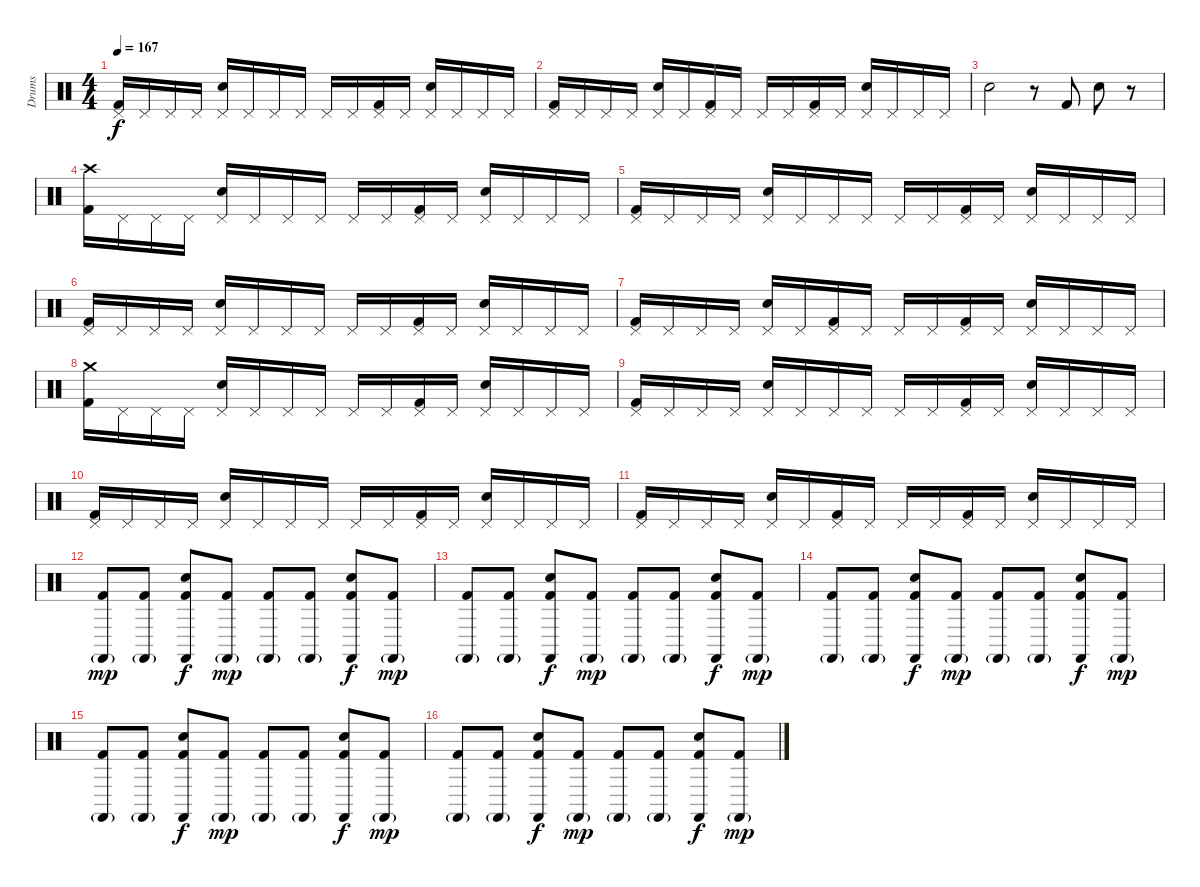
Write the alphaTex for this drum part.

\track ("Drums" "Drums") {instrument percussion}
\staff {score}
\articulation defaults
\ts (4 4)
\tempo 167
\clef neutral
\ks c
("Pedal Hi-Hat (hit)" "Kick (hit) 2").16{dy f} "Pedal Hi-Hat (hit)".16 "Pedal Hi-Hat (hit)".16 "Pedal Hi-Hat (hit)".16 ("Pedal Hi-Hat (hit)" "Snare (hit) 2").16 "Pedal Hi-Hat (hit)".16 "Pedal Hi-Hat (hit)".16 "Pedal Hi-Hat (hit)".16 "Pedal Hi-Hat (hit)".16 "Pedal Hi-Hat (hit)".16 ("Pedal Hi-Hat (hit)" "Kick (hit) 2").16 "Pedal Hi-Hat (hit)".16 ("Pedal Hi-Hat (hit)" "Snare (hit) 2").16 "Pedal Hi-Hat (hit)".16 "Pedal Hi-Hat (hit)".16 "Pedal Hi-Hat (hit)".16 |
("Pedal Hi-Hat (hit)" "Kick (hit) 2").16 "Pedal Hi-Hat (hit)".16 "Pedal Hi-Hat (hit)".16 "Pedal Hi-Hat (hit)".16 ("Pedal Hi-Hat (hit)" "Snare (hit) 2").16 "Pedal Hi-Hat (hit)".16 ("Pedal Hi-Hat (hit)" "Kick (hit) 2").16 "Pedal Hi-Hat (hit)".16 "Pedal Hi-Hat (hit)".16 "Pedal Hi-Hat (hit)".16 ("Pedal Hi-Hat (hit)" "Kick (hit) 2").16 "Pedal Hi-Hat (hit)".16 ("Pedal Hi-Hat (hit)" "Snare (hit) 2").16 "Pedal Hi-Hat (hit)".16 "Pedal Hi-Hat (hit)".16 "Pedal Hi-Hat (hit)".16 |
"Snare (hit) 2".2 r.8 "Kick (hit) 2".8 "Snare (hit) 2".8 r.8 |
("Crash high (hit)" "Kick (hit) 2").16 "Pedal Hi-Hat (hit)".16 "Pedal Hi-Hat (hit)".16 "Pedal Hi-Hat (hit)".16 ("Pedal Hi-Hat (hit)" "Snare (hit) 2").16 "Pedal Hi-Hat (hit)".16 "Pedal Hi-Hat (hit)".16 "Pedal Hi-Hat (hit)".16 "Pedal Hi-Hat (hit)".16 "Pedal Hi-Hat (hit)".16 ("Pedal Hi-Hat (hit)" "Kick (hit) 2").16 "Pedal Hi-Hat (hit)".16 ("Pedal Hi-Hat (hit)" "Snare (hit) 2").16 "Pedal Hi-Hat (hit)".16 "Pedal Hi-Hat (hit)".16 "Pedal Hi-Hat (hit)".16 |
("Pedal Hi-Hat (hit)" "Kick (hit) 2").16 "Pedal Hi-Hat (hit)".16 "Pedal Hi-Hat (hit)".16 "Pedal Hi-Hat (hit)".16 ("Pedal Hi-Hat (hit)" "Snare (hit) 2").16 "Pedal Hi-Hat (hit)".16 "Pedal Hi-Hat (hit)".16 "Pedal Hi-Hat (hit)".16 "Pedal Hi-Hat (hit)".16 "Pedal Hi-Hat (hit)".16 ("Pedal Hi-Hat (hit)" "Kick (hit) 2").16 "Pedal Hi-Hat (hit)".16 ("Pedal Hi-Hat (hit)" "Snare (hit) 2").16 "Pedal Hi-Hat (hit)".16 "Pedal Hi-Hat (hit)".16 "Pedal Hi-Hat (hit)".16 |
("Pedal Hi-Hat (hit)" "Kick (hit) 2").16 "Pedal Hi-Hat (hit)".16 "Pedal Hi-Hat (hit)".16 "Pedal Hi-Hat (hit)".16 ("Pedal Hi-Hat (hit)" "Snare (hit) 2").16 "Pedal Hi-Hat (hit)".16 "Pedal Hi-Hat (hit)".16 "Pedal Hi-Hat (hit)".16 "Pedal Hi-Hat (hit)".16 "Pedal Hi-Hat (hit)".16 ("Pedal Hi-Hat (hit)" "Kick (hit) 2").16 "Pedal Hi-Hat (hit)".16 ("Pedal Hi-Hat (hit)" "Snare (hit) 2").16 "Pedal Hi-Hat (hit)".16 "Pedal Hi-Hat (hit)".16 "Pedal Hi-Hat (hit)".16 |
("Pedal Hi-Hat (hit)" "Kick (hit) 2").16 "Pedal Hi-Hat (hit)".16 "Pedal Hi-Hat (hit)".16 "Pedal Hi-Hat (hit)".16 ("Pedal Hi-Hat (hit)" "Snare (hit) 2").16 "Pedal Hi-Hat (hit)".16 ("Pedal Hi-Hat (hit)" "Kick (hit) 2").16 "Pedal Hi-Hat (hit)".16 "Pedal Hi-Hat (hit)".16 "Pedal Hi-Hat (hit)".16 ("Pedal Hi-Hat (hit)" "Kick (hit) 2").16 "Pedal Hi-Hat (hit)".16 ("Pedal Hi-Hat (hit)" "Snare (hit) 2").16 "Pedal Hi-Hat (hit)".16 "Pedal Hi-Hat (hit)".16 "Pedal Hi-Hat (hit)".16 |
("Crash medium (hit)" "Kick (hit) 2").16 "Pedal Hi-Hat (hit)".16 "Pedal Hi-Hat (hit)".16 "Pedal Hi-Hat (hit)".16 ("Pedal Hi-Hat (hit)" "Snare (hit) 2").16 "Pedal Hi-Hat (hit)".16 "Pedal Hi-Hat (hit)".16 "Pedal Hi-Hat (hit)".16 "Pedal Hi-Hat (hit)".16 "Pedal Hi-Hat (hit)".16 ("Pedal Hi-Hat (hit)" "Kick (hit) 2").16 "Pedal Hi-Hat (hit)".16 ("Pedal Hi-Hat (hit)" "Snare (hit) 2").16 "Pedal Hi-Hat (hit)".16 "Pedal Hi-Hat (hit)".16 "Pedal Hi-Hat (hit)".16 |
("Pedal Hi-Hat (hit)" "Kick (hit) 2").16 "Pedal Hi-Hat (hit)".16 "Pedal Hi-Hat (hit)".16 "Pedal Hi-Hat (hit)".16 ("Pedal Hi-Hat (hit)" "Snare (hit) 2").16 "Pedal Hi-Hat (hit)".16 "Pedal Hi-Hat (hit)".16 "Pedal Hi-Hat (hit)".16 "Pedal Hi-Hat (hit)".16 "Pedal Hi-Hat (hit)".16 ("Pedal Hi-Hat (hit)" "Kick (hit) 2").16 "Pedal Hi-Hat (hit)".16 ("Pedal Hi-Hat (hit)" "Snare (hit) 2").16 "Pedal Hi-Hat (hit)".16 "Pedal Hi-Hat (hit)".16 "Pedal Hi-Hat (hit)".16 |
("Pedal Hi-Hat (hit)" "Kick (hit) 2").16 "Pedal Hi-Hat (hit)".16 "Pedal Hi-Hat (hit)".16 "Pedal Hi-Hat (hit)".16 ("Pedal Hi-Hat (hit)" "Snare (hit) 2").16 "Pedal Hi-Hat (hit)".16 "Pedal Hi-Hat (hit)".16 "Pedal Hi-Hat (hit)".16 "Pedal Hi-Hat (hit)".16 "Pedal Hi-Hat (hit)".16 ("Pedal Hi-Hat (hit)" "Kick (hit) 2").16 "Pedal Hi-Hat (hit)".16 ("Pedal Hi-Hat (hit)" "Snare (hit) 2").16 "Pedal Hi-Hat (hit)".16 "Pedal Hi-Hat (hit)".16 "Pedal Hi-Hat (hit)".16 |
("Pedal Hi-Hat (hit)" "Kick (hit) 2").16 "Pedal Hi-Hat (hit)".16 "Pedal Hi-Hat (hit)".16 "Pedal Hi-Hat (hit)".16 ("Pedal Hi-Hat (hit)" "Snare (hit) 2").16 "Pedal Hi-Hat (hit)".16 ("Pedal Hi-Hat (hit)" "Kick (hit) 2").16 "Pedal Hi-Hat (hit)".16 "Pedal Hi-Hat (hit)".16 "Pedal Hi-Hat (hit)".16 ("Pedal Hi-Hat (hit)" "Kick (hit) 2").16 "Pedal Hi-Hat (hit)".16 ("Pedal Hi-Hat (hit)" "Snare (hit) 2").16 "Pedal Hi-Hat (hit)".16 "Pedal Hi-Hat (hit)".16 "Pedal Hi-Hat (hit)".16 |
("Castanets (hit)"{g} "Kick (hit) 2").8{dy mp} ("Castanets (hit)"{g} "Kick (hit) 2").8 ("Castanets (hit)" "Snare (hit) 2" "Kick (hit) 2").8{dy f} ("Castanets (hit)"{g} "Kick (hit) 2").8{dy mp} ("Castanets (hit)"{g} "Kick (hit) 2").8 ("Castanets (hit)"{g} "Kick (hit) 2").8 ("Castanets (hit)" "Snare (hit) 2" "Kick (hit) 2").8{dy f} ("Castanets (hit)"{g} "Kick (hit) 2").8{dy mp} |
("Castanets (hit)"{g} "Kick (hit) 2").8 ("Castanets (hit)"{g} "Kick (hit) 2").8 ("Castanets (hit)" "Snare (hit) 2" "Kick (hit) 2").8{dy f} ("Castanets (hit)"{g} "Kick (hit) 2").8{dy mp} ("Castanets (hit)"{g} "Kick (hit) 2").8 ("Castanets (hit)"{g} "Kick (hit) 2").8 ("Castanets (hit)" "Snare (hit) 2" "Kick (hit) 2").8{dy f} ("Castanets (hit)"{g} "Kick (hit) 2").8{dy mp} |
("Castanets (hit)"{g} "Kick (hit) 2").8 ("Castanets (hit)"{g} "Kick (hit) 2").8 ("Castanets (hit)" "Snare (hit) 2" "Kick (hit) 2").8{dy f} ("Castanets (hit)"{g} "Kick (hit) 2").8{dy mp} ("Castanets (hit)"{g} "Kick (hit) 2").8 ("Castanets (hit)"{g} "Kick (hit) 2").8 ("Castanets (hit)" "Snare (hit) 2" "Kick (hit) 2").8{dy f} ("Castanets (hit)"{g} "Kick (hit) 2").8{dy mp} |
("Castanets (hit)"{g} "Kick (hit) 2").8 ("Castanets (hit)"{g} "Kick (hit) 2").8 ("Castanets (hit)" "Snare (hit) 2" "Kick (hit) 2").8{dy f} ("Castanets (hit)"{g} "Kick (hit) 2").8{dy mp} ("Castanets (hit)"{g} "Kick (hit) 2").8 ("Castanets (hit)"{g} "Kick (hit) 2").8 ("Castanets (hit)" "Snare (hit) 2" "Kick (hit) 2").8{dy f} ("Castanets (hit)"{g} "Kick (hit) 2").8{dy mp} |
("Castanets (hit)"{g} "Kick (hit) 2").8 ("Castanets (hit)"{g} "Kick (hit) 2").8 ("Castanets (hit)" "Snare (hit) 2" "Kick (hit) 2").8{dy f} ("Castanets (hit)"{g} "Kick (hit) 2").8{dy mp} ("Castanets (hit)"{g} "Kick (hit) 2").8 ("Castanets (hit)"{g} "Kick (hit) 2").8 ("Castanets (hit)" "Snare (hit) 2" "Kick (hit) 2").8{dy f} ("Castanets (hit)"{g} "Kick (hit) 2").8{dy mp}
